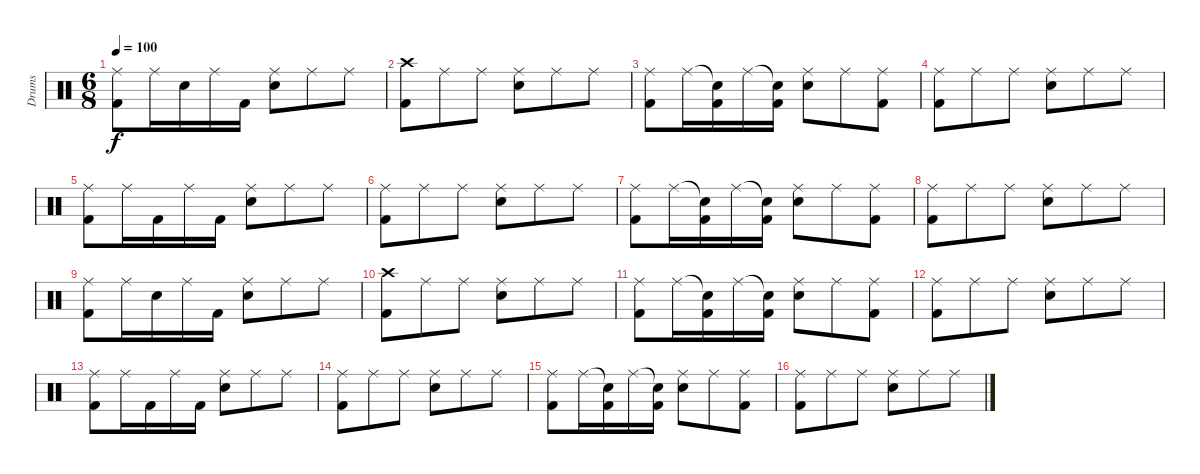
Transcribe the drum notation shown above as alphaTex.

\track ("Drums" "Drums") {instrument percussion}
\staff {score}
\articulation defaults
\ts (6 8)
\tempo 100
\clef neutral
\ks c
("Ride (middle)" "Kick (hit) 2").8{dy f} "Ride (middle)".16 "Snare (hit) 2".16 "Ride (middle)".16 "Kick (hit) 2".16 ("Ride (middle)" "Snare (hit) 2").8 "Ride (middle)".8 "Ride (middle)".8 |
("Crash high (hit)" "Kick (hit) 2").8 "Ride (middle)".8 "Ride (middle)".8 ("Ride (middle)" "Snare (hit) 2").8 "Ride (middle)".8 "Ride (middle)".8 |
("Ride (middle)" "Kick (hit) 2").8 "Ride (middle)".16 ("Snare (hit)"{t} "Kick (hit) 2").16 "Ride (middle)".16 ("Snare (hit)"{t} "Kick (hit) 2").16 ("Ride (middle)" "Snare (hit) 2").8 "Ride (middle)".8 ("Ride (middle)" "Kick (hit) 2").8 |
("Ride (middle)" "Kick (hit) 2").8 "Ride (middle)".8 "Ride (middle)".8 ("Ride (middle)" "Snare (hit) 2").8 "Ride (middle)".8 "Ride (middle)".8 |
("Ride (middle)" "Kick (hit) 2").8 "Ride (middle)".16 "Kick (hit) 2".16 "Ride (middle)".16 "Kick (hit) 2".16 ("Ride (middle)" "Snare (hit) 2").8 "Ride (middle)".8 "Ride (middle)".8 |
("Ride (middle)" "Kick (hit) 2").8 "Ride (middle)".8 "Ride (middle)".8 ("Ride (middle)" "Snare (hit) 2").8 "Ride (middle)".8 "Ride (middle)".8 |
("Ride (middle)" "Kick (hit) 2").8 "Ride (middle)".16 ("Snare (hit)"{t} "Kick (hit) 2").16 "Ride (middle)".16 ("Snare (hit)"{t} "Kick (hit) 2").16 ("Ride (middle)" "Snare (hit) 2").8 "Ride (middle)".8 ("Ride (middle)" "Kick (hit) 2").8 |
("Ride (middle)" "Kick (hit) 2").8 "Ride (middle)".8 "Ride (middle)".8 ("Ride (middle)" "Snare (hit) 2").8 "Ride (middle)".8 "Ride (middle)".8 |
("Ride (middle)" "Kick (hit) 2").8 "Ride (middle)".16 "Snare (hit) 2".16 "Ride (middle)".16 "Kick (hit) 2".16 ("Ride (middle)" "Snare (hit) 2").8 "Ride (middle)".8 "Ride (middle)".8 |
("Crash high (hit)" "Kick (hit) 2").8 "Ride (middle)".8 "Ride (middle)".8 ("Ride (middle)" "Snare (hit) 2").8 "Ride (middle)".8 "Ride (middle)".8 |
("Ride (middle)" "Kick (hit) 2").8 "Ride (middle)".16 ("Snare (hit)"{t} "Kick (hit) 2").16 "Ride (middle)".16 ("Snare (hit)"{t} "Kick (hit) 2").16 ("Ride (middle)" "Snare (hit) 2").8 "Ride (middle)".8 ("Ride (middle)" "Kick (hit) 2").8 |
("Ride (middle)" "Kick (hit) 2").8 "Ride (middle)".8 "Ride (middle)".8 ("Ride (middle)" "Snare (hit) 2").8 "Ride (middle)".8 "Ride (middle)".8 |
("Ride (middle)" "Kick (hit) 2").8 "Ride (middle)".16 "Kick (hit) 2".16 "Ride (middle)".16 "Kick (hit) 2".16 ("Ride (middle)" "Snare (hit) 2").8 "Ride (middle)".8 "Ride (middle)".8 |
("Ride (middle)" "Kick (hit) 2").8 "Ride (middle)".8 "Ride (middle)".8 ("Ride (middle)" "Snare (hit) 2").8 "Ride (middle)".8 "Ride (middle)".8 |
("Ride (middle)" "Kick (hit) 2").8 "Ride (middle)".16 ("Snare (hit)"{t} "Kick (hit) 2").16 "Ride (middle)".16 ("Snare (hit)"{t} "Kick (hit) 2").16 ("Ride (middle)" "Snare (hit) 2").8 "Ride (middle)".8 ("Ride (middle)" "Kick (hit) 2").8 |
("Ride (middle)" "Kick (hit) 2").8 "Ride (middle)".8 "Ride (middle)".8 ("Ride (middle)" "Snare (hit) 2").8 "Ride (middle)".8 "Ride (middle)".8
